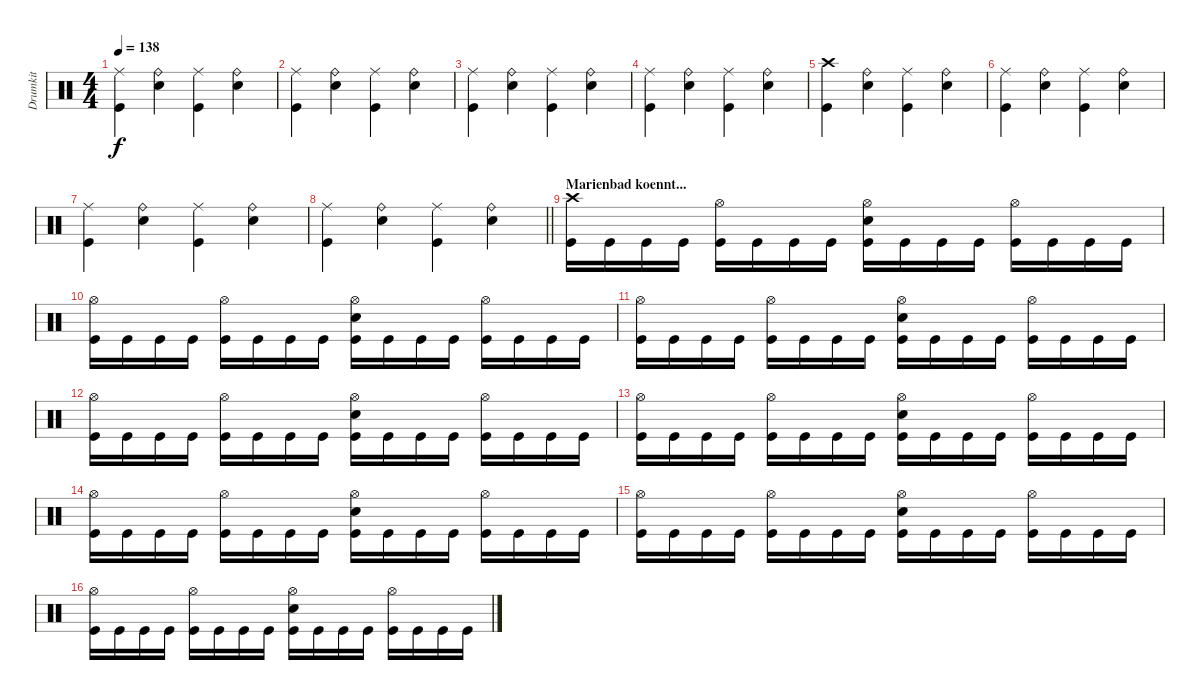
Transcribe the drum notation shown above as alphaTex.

\track ("Drumkit" "Drumkit") {instrument percussion}
\staff {score}
\articulation defaults
\ts (4 4)
\tempo 138
\clef neutral
\ks c
("Ride (middle)" "Kick (hit)").4{dy f} ("Ride (bell)" "Snare (hit) 2").4 ("Ride (middle)" "Kick (hit)").4 ("Ride (bell)" "Snare (hit) 2").4 |
("Ride (middle)" "Kick (hit)").4 ("Ride (bell)" "Snare (hit) 2").4 ("Ride (middle)" "Kick (hit)").4 ("Ride (bell)" "Snare (hit) 2").4 |
("Ride (middle)" "Kick (hit)").4 ("Ride (bell)" "Snare (hit) 2").4 ("Ride (middle)" "Kick (hit)").4 ("Ride (bell)" "Snare (hit) 2").4 |
("Ride (middle)" "Kick (hit)").4 ("Ride (bell)" "Snare (hit) 2").4 ("Ride (middle)" "Kick (hit)").4 ("Ride (bell)" "Snare (hit) 2").4 |
("Crash high (hit)" "Kick (hit)").4 ("Ride (bell)" "Snare (hit) 2").4 ("Ride (middle)" "Kick (hit)").4 ("Ride (bell)" "Snare (hit) 2").4 |
("Ride (middle)" "Kick (hit)").4 ("Ride (bell)" "Snare (hit) 2").4 ("Ride (middle)" "Kick (hit)").4 ("Ride (bell)" "Snare (hit) 2").4 |
("Ride (middle)" "Kick (hit)").4 ("Ride (bell)" "Snare (hit) 2").4 ("Ride (middle)" "Kick (hit)").4 ("Ride (bell)" "Snare (hit) 2").4 |
\barLineRight lightlight
("Ride (middle)" "Kick (hit)").4 ("Ride (bell)" "Snare (hit) 2").4 ("Ride (middle)" "Kick (hit)").4 ("Ride (bell)" "Snare (hit) 2").4 |
\section ("" "Marienbad koennt...")
("Crash high (hit)" "Kick (hit)").16 "Kick (hit)".16 "Kick (hit)".16 "Kick (hit)".16 ("Hi-Hat (open)" "Kick (hit)").16 "Kick (hit)".16 "Kick (hit)".16 "Kick (hit)".16 ("Hi-Hat (open)" "Snare (hit) 2" "Kick (hit)").16 "Kick (hit)".16 "Kick (hit)".16 "Kick (hit)".16 ("Hi-Hat (open)" "Kick (hit)").16 "Kick (hit)".16 "Kick (hit)".16 "Kick (hit)".16 |
("Hi-Hat (open)" "Kick (hit)").16 "Kick (hit)".16 "Kick (hit)".16 "Kick (hit)".16 ("Hi-Hat (open)" "Kick (hit)").16 "Kick (hit)".16 "Kick (hit)".16 "Kick (hit)".16 ("Hi-Hat (open)" "Snare (hit) 2" "Kick (hit)").16 "Kick (hit)".16 "Kick (hit)".16 "Kick (hit)".16 ("Hi-Hat (open)" "Kick (hit)").16 "Kick (hit)".16 "Kick (hit)".16 "Kick (hit)".16 |
("Hi-Hat (open)" "Kick (hit)").16 "Kick (hit)".16 "Kick (hit)".16 "Kick (hit)".16 ("Hi-Hat (open)" "Kick (hit)").16 "Kick (hit)".16 "Kick (hit)".16 "Kick (hit)".16 ("Hi-Hat (open)" "Snare (hit) 2" "Kick (hit)").16 "Kick (hit)".16 "Kick (hit)".16 "Kick (hit)".16 ("Hi-Hat (open)" "Kick (hit)").16 "Kick (hit)".16 "Kick (hit)".16 "Kick (hit)".16 |
("Hi-Hat (open)" "Kick (hit)").16 "Kick (hit)".16 "Kick (hit)".16 "Kick (hit)".16 ("Hi-Hat (open)" "Kick (hit)").16 "Kick (hit)".16 "Kick (hit)".16 "Kick (hit)".16 ("Hi-Hat (open)" "Snare (hit) 2" "Kick (hit)").16 "Kick (hit)".16 "Kick (hit)".16 "Kick (hit)".16 ("Hi-Hat (open)" "Kick (hit)").16 "Kick (hit)".16 "Kick (hit)".16 "Kick (hit)".16 |
("Hi-Hat (open)" "Kick (hit)").16 "Kick (hit)".16 "Kick (hit)".16 "Kick (hit)".16 ("Hi-Hat (open)" "Kick (hit)").16 "Kick (hit)".16 "Kick (hit)".16 "Kick (hit)".16 ("Hi-Hat (open)" "Snare (hit) 2" "Kick (hit)").16 "Kick (hit)".16 "Kick (hit)".16 "Kick (hit)".16 ("Hi-Hat (open)" "Kick (hit)").16 "Kick (hit)".16 "Kick (hit)".16 "Kick (hit)".16 |
("Hi-Hat (open)" "Kick (hit)").16 "Kick (hit)".16 "Kick (hit)".16 "Kick (hit)".16 ("Hi-Hat (open)" "Kick (hit)").16 "Kick (hit)".16 "Kick (hit)".16 "Kick (hit)".16 ("Hi-Hat (open)" "Snare (hit) 2" "Kick (hit)").16 "Kick (hit)".16 "Kick (hit)".16 "Kick (hit)".16 ("Hi-Hat (open)" "Kick (hit)").16 "Kick (hit)".16 "Kick (hit)".16 "Kick (hit)".16 |
("Hi-Hat (open)" "Kick (hit)").16 "Kick (hit)".16 "Kick (hit)".16 "Kick (hit)".16 ("Hi-Hat (open)" "Kick (hit)").16 "Kick (hit)".16 "Kick (hit)".16 "Kick (hit)".16 ("Hi-Hat (open)" "Snare (hit) 2" "Kick (hit)").16 "Kick (hit)".16 "Kick (hit)".16 "Kick (hit)".16 ("Hi-Hat (open)" "Kick (hit)").16 "Kick (hit)".16 "Kick (hit)".16 "Kick (hit)".16 |
("Hi-Hat (open)" "Kick (hit)").16 "Kick (hit)".16 "Kick (hit)".16 "Kick (hit)".16 ("Hi-Hat (open)" "Kick (hit)").16 "Kick (hit)".16 "Kick (hit)".16 "Kick (hit)".16 ("Hi-Hat (open)" "Snare (hit) 2" "Kick (hit)").16 "Kick (hit)".16 "Kick (hit)".16 "Kick (hit)".16 ("Hi-Hat (open)" "Kick (hit)").16 "Kick (hit)".16 "Kick (hit)".16 "Kick (hit)".16
